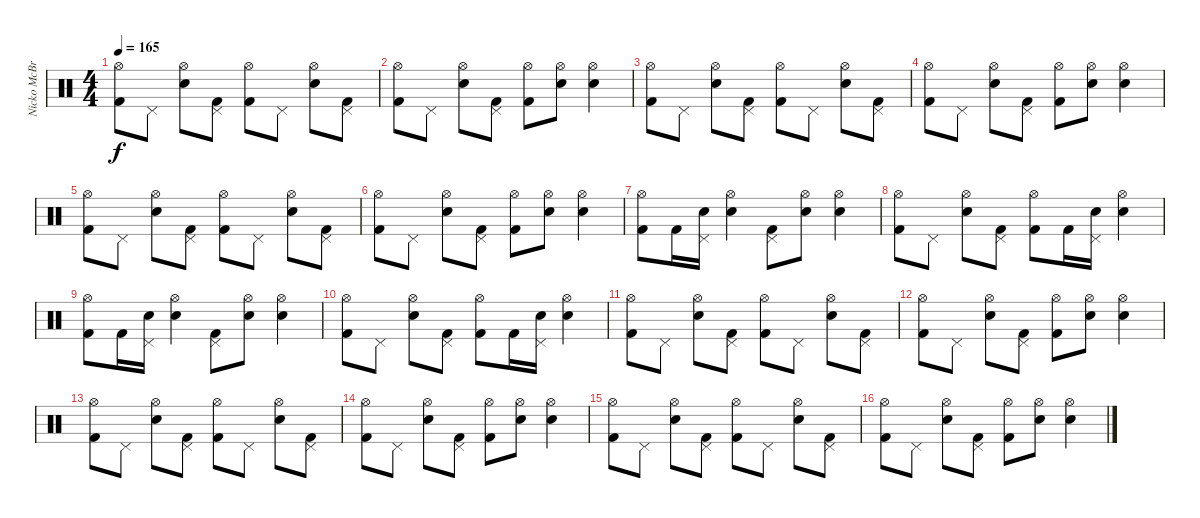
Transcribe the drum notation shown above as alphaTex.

\track ("Nicko McBrain" "Nicko McBr") {instrument percussion}
\staff {score}
\articulation defaults
\ts (4 4)
\tempo 165
\clef neutral
\ks c
("Kick (hit) 2" "Hi-Hat (open)").8{dy f} "Pedal Hi-Hat (hit)".8 ("Snare (hit) 2" "Hi-Hat (open)").8 ("Kick (hit) 2" "Pedal Hi-Hat (hit)").8 ("Kick (hit) 2" "Hi-Hat (open)").8 "Pedal Hi-Hat (hit)".8 ("Snare (hit) 2" "Hi-Hat (open)").8 ("Kick (hit) 2" "Pedal Hi-Hat (hit)").8 |
("Kick (hit) 2" "Hi-Hat (open)").8 "Pedal Hi-Hat (hit)".8 ("Snare (hit) 2" "Hi-Hat (open)").8 ("Kick (hit) 2" "Pedal Hi-Hat (hit)").8 ("Kick (hit) 2" "Hi-Hat (open)").8 ("Snare (hit) 2" "Hi-Hat (open)").8 ("Snare (hit) 2" "Hi-Hat (open)").4 |
("Kick (hit) 2" "Hi-Hat (open)").8 "Pedal Hi-Hat (hit)".8 ("Snare (hit) 2" "Hi-Hat (open)").8 ("Kick (hit) 2" "Pedal Hi-Hat (hit)").8 ("Kick (hit) 2" "Hi-Hat (open)").8 "Pedal Hi-Hat (hit)".8 ("Snare (hit) 2" "Hi-Hat (open)").8 ("Kick (hit) 2" "Pedal Hi-Hat (hit)").8 |
("Kick (hit) 2" "Hi-Hat (open)").8 "Pedal Hi-Hat (hit)".8 ("Snare (hit) 2" "Hi-Hat (open)").8 ("Kick (hit) 2" "Pedal Hi-Hat (hit)").8 ("Kick (hit) 2" "Hi-Hat (open)").8 ("Snare (hit) 2" "Hi-Hat (open)").8 ("Snare (hit) 2" "Hi-Hat (open)").4 |
("Kick (hit) 2" "Hi-Hat (open)").8 "Pedal Hi-Hat (hit)".8 ("Snare (hit) 2" "Hi-Hat (open)").8 ("Kick (hit) 2" "Pedal Hi-Hat (hit)").8 ("Kick (hit) 2" "Hi-Hat (open)").8 "Pedal Hi-Hat (hit)".8 ("Snare (hit) 2" "Hi-Hat (open)").8 ("Kick (hit) 2" "Pedal Hi-Hat (hit)").8 |
("Kick (hit) 2" "Hi-Hat (open)").8 "Pedal Hi-Hat (hit)".8 ("Snare (hit) 2" "Hi-Hat (open)").8 ("Kick (hit) 2" "Pedal Hi-Hat (hit)").8 ("Kick (hit) 2" "Hi-Hat (open)").8 ("Snare (hit) 2" "Hi-Hat (open)").8 ("Snare (hit) 2" "Hi-Hat (open)").4 |
("Kick (hit) 2" "Hi-Hat (open)").8 "Kick (hit) 2".16 ("Snare (hit) 2" "Pedal Hi-Hat (hit)").16 ("Snare (hit) 2" "Hi-Hat (open)").4 ("Kick (hit) 2" "Pedal Hi-Hat (hit)").8 ("Snare (hit) 2" "Hi-Hat (open)").8 ("Snare (hit) 2" "Hi-Hat (open)").4 |
("Kick (hit) 2" "Hi-Hat (open)").8 "Pedal Hi-Hat (hit)".8 ("Snare (hit) 2" "Hi-Hat (open)").8 ("Kick (hit) 2" "Pedal Hi-Hat (hit)").8 ("Kick (hit) 2" "Hi-Hat (open)").8 "Kick (hit) 2".16 ("Snare (hit) 2" "Pedal Hi-Hat (hit)").16 ("Snare (hit) 2" "Hi-Hat (open)").4 |
("Kick (hit) 2" "Hi-Hat (open)").8 "Kick (hit) 2".16 ("Snare (hit) 2" "Pedal Hi-Hat (hit)").16 ("Snare (hit) 2" "Hi-Hat (open)").4 ("Kick (hit) 2" "Pedal Hi-Hat (hit)").8 ("Snare (hit) 2" "Hi-Hat (open)").8 ("Snare (hit) 2" "Hi-Hat (open)").4 |
("Kick (hit) 2" "Hi-Hat (open)").8 "Pedal Hi-Hat (hit)".8 ("Snare (hit) 2" "Hi-Hat (open)").8 ("Kick (hit) 2" "Pedal Hi-Hat (hit)").8 ("Kick (hit) 2" "Hi-Hat (open)").8 "Kick (hit) 2".16 ("Snare (hit) 2" "Pedal Hi-Hat (hit)").16 ("Snare (hit) 2" "Hi-Hat (open)").4 |
("Kick (hit) 2" "Hi-Hat (open)").8 "Pedal Hi-Hat (hit)".8 ("Snare (hit) 2" "Hi-Hat (open)").8 ("Kick (hit) 2" "Pedal Hi-Hat (hit)").8 ("Kick (hit) 2" "Hi-Hat (open)").8 "Pedal Hi-Hat (hit)".8 ("Snare (hit) 2" "Hi-Hat (open)").8 ("Kick (hit) 2" "Pedal Hi-Hat (hit)").8 |
("Kick (hit) 2" "Hi-Hat (open)").8 "Pedal Hi-Hat (hit)".8 ("Snare (hit) 2" "Hi-Hat (open)").8 ("Kick (hit) 2" "Pedal Hi-Hat (hit)").8 ("Kick (hit) 2" "Hi-Hat (open)").8 ("Snare (hit) 2" "Hi-Hat (open)").8 ("Snare (hit) 2" "Hi-Hat (open)").4 |
("Kick (hit) 2" "Hi-Hat (open)").8 "Pedal Hi-Hat (hit)".8 ("Snare (hit) 2" "Hi-Hat (open)").8 ("Kick (hit) 2" "Pedal Hi-Hat (hit)").8 ("Kick (hit) 2" "Hi-Hat (open)").8 "Pedal Hi-Hat (hit)".8 ("Snare (hit) 2" "Hi-Hat (open)").8 ("Kick (hit) 2" "Pedal Hi-Hat (hit)").8 |
("Kick (hit) 2" "Hi-Hat (open)").8 "Pedal Hi-Hat (hit)".8 ("Snare (hit) 2" "Hi-Hat (open)").8 ("Kick (hit) 2" "Pedal Hi-Hat (hit)").8 ("Kick (hit) 2" "Hi-Hat (open)").8 ("Snare (hit) 2" "Hi-Hat (open)").8 ("Snare (hit) 2" "Hi-Hat (open)").4 |
("Kick (hit) 2" "Hi-Hat (open)").8 "Pedal Hi-Hat (hit)".8 ("Snare (hit) 2" "Hi-Hat (open)").8 ("Kick (hit) 2" "Pedal Hi-Hat (hit)").8 ("Kick (hit) 2" "Hi-Hat (open)").8 "Pedal Hi-Hat (hit)".8 ("Snare (hit) 2" "Hi-Hat (open)").8 ("Kick (hit) 2" "Pedal Hi-Hat (hit)").8 |
("Kick (hit) 2" "Hi-Hat (open)").8 "Pedal Hi-Hat (hit)".8 ("Snare (hit) 2" "Hi-Hat (open)").8 ("Kick (hit) 2" "Pedal Hi-Hat (hit)").8 ("Kick (hit) 2" "Hi-Hat (open)").8 ("Snare (hit) 2" "Hi-Hat (open)").8 ("Snare (hit) 2" "Hi-Hat (open)").4
